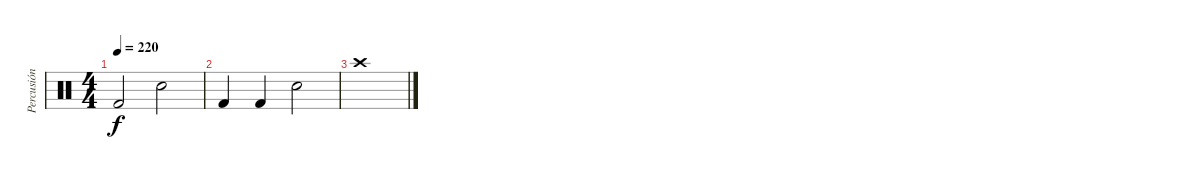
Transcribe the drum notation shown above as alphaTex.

\track ("Percusión" "Percusión") {instrument percussion}
\staff {score}
\articulation defaults
\ts (4 4)
\tempo 220
\clef neutral
\ks c "Kick (hit) 2".2{dy f} "Electric Snare (hit)".2
|
"Kick (hit) 2".4 "Kick (hit) 2".4 "Electric Snare (hit)".2 |
"Crash high (hit)".1
